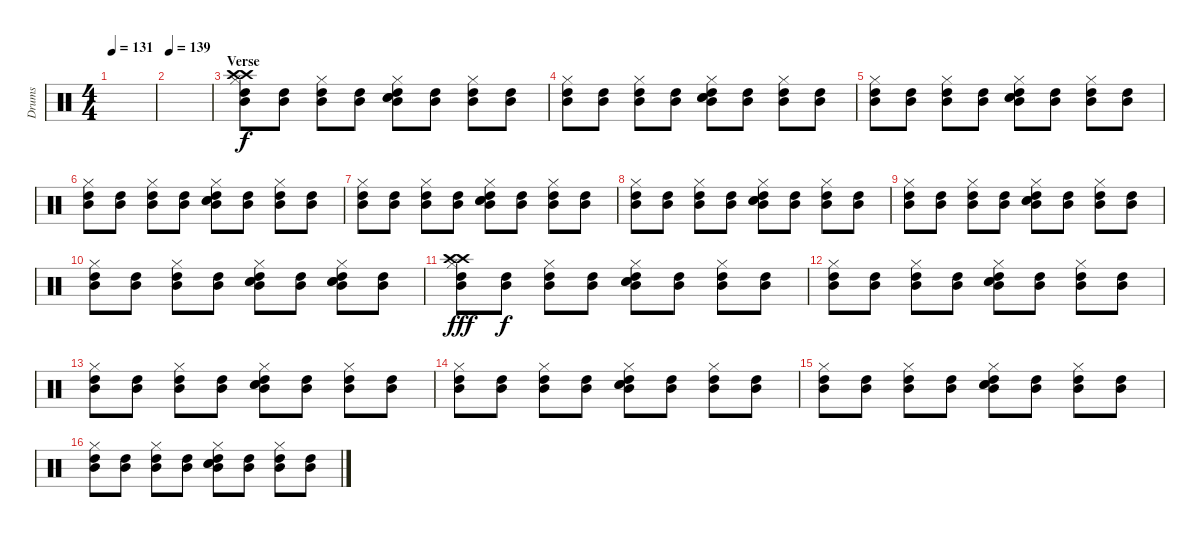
\track ("Drums" "Drums") {instrument percussion}
\staff {score}
\articulation defaults
\ts (4 4)
\tempo 131
\clef neutral
\ks c
|
\tempo 139
|
\section ("" "Verse")
("Hi-Hat (closed)" "Mid Tom (hit)" "High Tom (hit)" "Crash high (hit)" "Crash high (hit)").8 ("Mid Tom (hit)" "High Tom (hit)").8{dy f} ("Hi-Hat (closed)" "Mid Tom (hit)" "High Tom (hit)").8 ("Mid Tom (hit)" "High Tom (hit)").8 ("Hi-Hat (closed)" "Mid Tom (hit)" "High Tom (hit)" "Electric Snare (hit)" "Electric Snare (hit)").8 ("Mid Tom (hit)" "High Tom (hit)").8 ("Hi-Hat (closed)" "Mid Tom (hit)" "High Tom (hit)").8 ("Mid Tom (hit)" "High Tom (hit)").8 |
("Hi-Hat (closed)" "Mid Tom (hit)" "High Tom (hit)").8 ("Mid Tom (hit)" "High Tom (hit)").8 ("Hi-Hat (closed)" "Mid Tom (hit)" "High Tom (hit)").8 ("Mid Tom (hit)" "High Tom (hit)").8 ("Hi-Hat (closed)" "Mid Tom (hit)" "High Tom (hit)" "Electric Snare (hit)" "Electric Snare (hit)").8 ("Mid Tom (hit)" "High Tom (hit)").8 ("Hi-Hat (closed)" "Mid Tom (hit)" "High Tom (hit)").8 ("Mid Tom (hit)" "High Tom (hit)").8 |
("Hi-Hat (closed)" "Mid Tom (hit)" "High Tom (hit)").8 ("Mid Tom (hit)" "High Tom (hit)").8 ("Hi-Hat (closed)" "Mid Tom (hit)" "High Tom (hit)").8 ("Mid Tom (hit)" "High Tom (hit)").8 ("Hi-Hat (closed)" "Mid Tom (hit)" "High Tom (hit)" "Electric Snare (hit)" "Electric Snare (hit)").8 ("Mid Tom (hit)" "High Tom (hit)").8 ("Hi-Hat (closed)" "Mid Tom (hit)" "High Tom (hit)").8 ("Mid Tom (hit)" "High Tom (hit)").8 |
("Hi-Hat (closed)" "Mid Tom (hit)" "High Tom (hit)").8 ("Mid Tom (hit)" "High Tom (hit)").8 ("Hi-Hat (closed)" "Mid Tom (hit)" "High Tom (hit)").8 ("Mid Tom (hit)" "High Tom (hit)").8 ("Hi-Hat (closed)" "Mid Tom (hit)" "High Tom (hit)" "Electric Snare (hit)" "Electric Snare (hit)").8 ("Mid Tom (hit)" "High Tom (hit)").8 ("Hi-Hat (closed)" "Mid Tom (hit)" "High Tom (hit)").8 ("Mid Tom (hit)" "High Tom (hit)").8 |
("Hi-Hat (closed)" "Mid Tom (hit)" "High Tom (hit)").8 ("Mid Tom (hit)" "High Tom (hit)").8 ("Hi-Hat (closed)" "Mid Tom (hit)" "High Tom (hit)").8 ("Mid Tom (hit)" "High Tom (hit)").8 ("Hi-Hat (closed)" "Mid Tom (hit)" "High Tom (hit)" "Electric Snare (hit)" "Electric Snare (hit)").8 ("Mid Tom (hit)" "High Tom (hit)").8 ("Hi-Hat (closed)" "Mid Tom (hit)" "High Tom (hit)").8 ("Mid Tom (hit)" "High Tom (hit)").8 |
("Hi-Hat (closed)" "Mid Tom (hit)" "High Tom (hit)").8 ("Mid Tom (hit)" "High Tom (hit)").8 ("Hi-Hat (closed)" "Mid Tom (hit)" "High Tom (hit)").8 ("Mid Tom (hit)" "High Tom (hit)").8 ("Hi-Hat (closed)" "Mid Tom (hit)" "High Tom (hit)" "Electric Snare (hit)" "Electric Snare (hit)").8 ("Mid Tom (hit)" "High Tom (hit)").8 ("Hi-Hat (closed)" "Mid Tom (hit)" "High Tom (hit)").8 ("Mid Tom (hit)" "High Tom (hit)").8 |
("Hi-Hat (closed)" "Mid Tom (hit)" "High Tom (hit)").8 ("Mid Tom (hit)" "High Tom (hit)").8 ("Hi-Hat (closed)" "Mid Tom (hit)" "High Tom (hit)").8 ("Mid Tom (hit)" "High Tom (hit)").8 ("Hi-Hat (closed)" "Mid Tom (hit)" "High Tom (hit)" "Electric Snare (hit)" "Electric Snare (hit)").8 ("Mid Tom (hit)" "High Tom (hit)").8 ("Hi-Hat (closed)" "Mid Tom (hit)" "High Tom (hit)").8 ("Mid Tom (hit)" "High Tom (hit)").8 |
("Hi-Hat (closed)" "Mid Tom (hit)" "High Tom (hit)").8 ("Mid Tom (hit)" "High Tom (hit)").8 ("Hi-Hat (closed)" "Mid Tom (hit)" "High Tom (hit)").8 ("Mid Tom (hit)" "High Tom (hit)").8 ("Hi-Hat (closed)" "Mid Tom (hit)" "High Tom (hit)" "Electric Snare (hit)" "Electric Snare (hit)").8 ("Mid Tom (hit)" "High Tom (hit)").8 ("Hi-Hat (closed)" "Mid Tom (hit)" "High Tom (hit)" "Electric Snare (hit)" "Electric Snare (hit)").8 ("Mid Tom (hit)" "High Tom (hit)").8 |
("Hi-Hat (closed)" "Mid Tom (hit)" "High Tom (hit)" "Crash high (hit)" "Crash high (hit)").8{dy fff} ("Mid Tom (hit)" "High Tom (hit)").8{dy f} ("Hi-Hat (closed)" "Mid Tom (hit)" "High Tom (hit)").8 ("Mid Tom (hit)" "High Tom (hit)").8 ("Hi-Hat (closed)" "Mid Tom (hit)" "High Tom (hit)" "Electric Snare (hit)" "Electric Snare (hit)").8 ("Mid Tom (hit)" "High Tom (hit)").8 ("Hi-Hat (closed)" "Mid Tom (hit)" "High Tom (hit)").8 ("Mid Tom (hit)" "High Tom (hit)").8 |
("Hi-Hat (closed)" "Mid Tom (hit)" "High Tom (hit)").8 ("Mid Tom (hit)" "High Tom (hit)").8 ("Hi-Hat (closed)" "Mid Tom (hit)" "High Tom (hit)").8 ("Mid Tom (hit)" "High Tom (hit)").8 ("Hi-Hat (closed)" "Mid Tom (hit)" "High Tom (hit)" "Electric Snare (hit)" "Electric Snare (hit)").8 ("Mid Tom (hit)" "High Tom (hit)").8 ("Hi-Hat (closed)" "Mid Tom (hit)" "High Tom (hit)").8 ("Mid Tom (hit)" "High Tom (hit)").8 |
("Hi-Hat (closed)" "Mid Tom (hit)" "High Tom (hit)").8 ("Mid Tom (hit)" "High Tom (hit)").8 ("Hi-Hat (closed)" "Mid Tom (hit)" "High Tom (hit)").8 ("Mid Tom (hit)" "High Tom (hit)").8 ("Hi-Hat (closed)" "Mid Tom (hit)" "High Tom (hit)" "Electric Snare (hit)" "Electric Snare (hit)").8 ("Mid Tom (hit)" "High Tom (hit)").8 ("Hi-Hat (closed)" "Mid Tom (hit)" "High Tom (hit)").8 ("Mid Tom (hit)" "High Tom (hit)").8 |
("Hi-Hat (closed)" "Mid Tom (hit)" "High Tom (hit)").8 ("Mid Tom (hit)" "High Tom (hit)").8 ("Hi-Hat (closed)" "Mid Tom (hit)" "High Tom (hit)").8 ("Mid Tom (hit)" "High Tom (hit)").8 ("Hi-Hat (closed)" "Mid Tom (hit)" "High Tom (hit)" "Electric Snare (hit)" "Electric Snare (hit)").8 ("Mid Tom (hit)" "High Tom (hit)").8 ("Hi-Hat (closed)" "Mid Tom (hit)" "High Tom (hit)").8 ("Mid Tom (hit)" "High Tom (hit)").8 |
("Hi-Hat (closed)" "Mid Tom (hit)" "High Tom (hit)").8 ("Mid Tom (hit)" "High Tom (hit)").8 ("Hi-Hat (closed)" "Mid Tom (hit)" "High Tom (hit)").8 ("Mid Tom (hit)" "High Tom (hit)").8 ("Hi-Hat (closed)" "Mid Tom (hit)" "High Tom (hit)" "Electric Snare (hit)" "Electric Snare (hit)").8 ("Mid Tom (hit)" "High Tom (hit)").8 ("Hi-Hat (closed)" "Mid Tom (hit)" "High Tom (hit)").8 ("Mid Tom (hit)" "High Tom (hit)").8 |
("Hi-Hat (closed)" "Mid Tom (hit)" "High Tom (hit)").8 ("Mid Tom (hit)" "High Tom (hit)").8 ("Hi-Hat (closed)" "Mid Tom (hit)" "High Tom (hit)").8 ("Mid Tom (hit)" "High Tom (hit)").8 ("Hi-Hat (closed)" "Mid Tom (hit)" "High Tom (hit)" "Electric Snare (hit)" "Electric Snare (hit)").8 ("Mid Tom (hit)" "High Tom (hit)").8 ("Hi-Hat (closed)" "Mid Tom (hit)" "High Tom (hit)").8 ("Mid Tom (hit)" "High Tom (hit)").8
